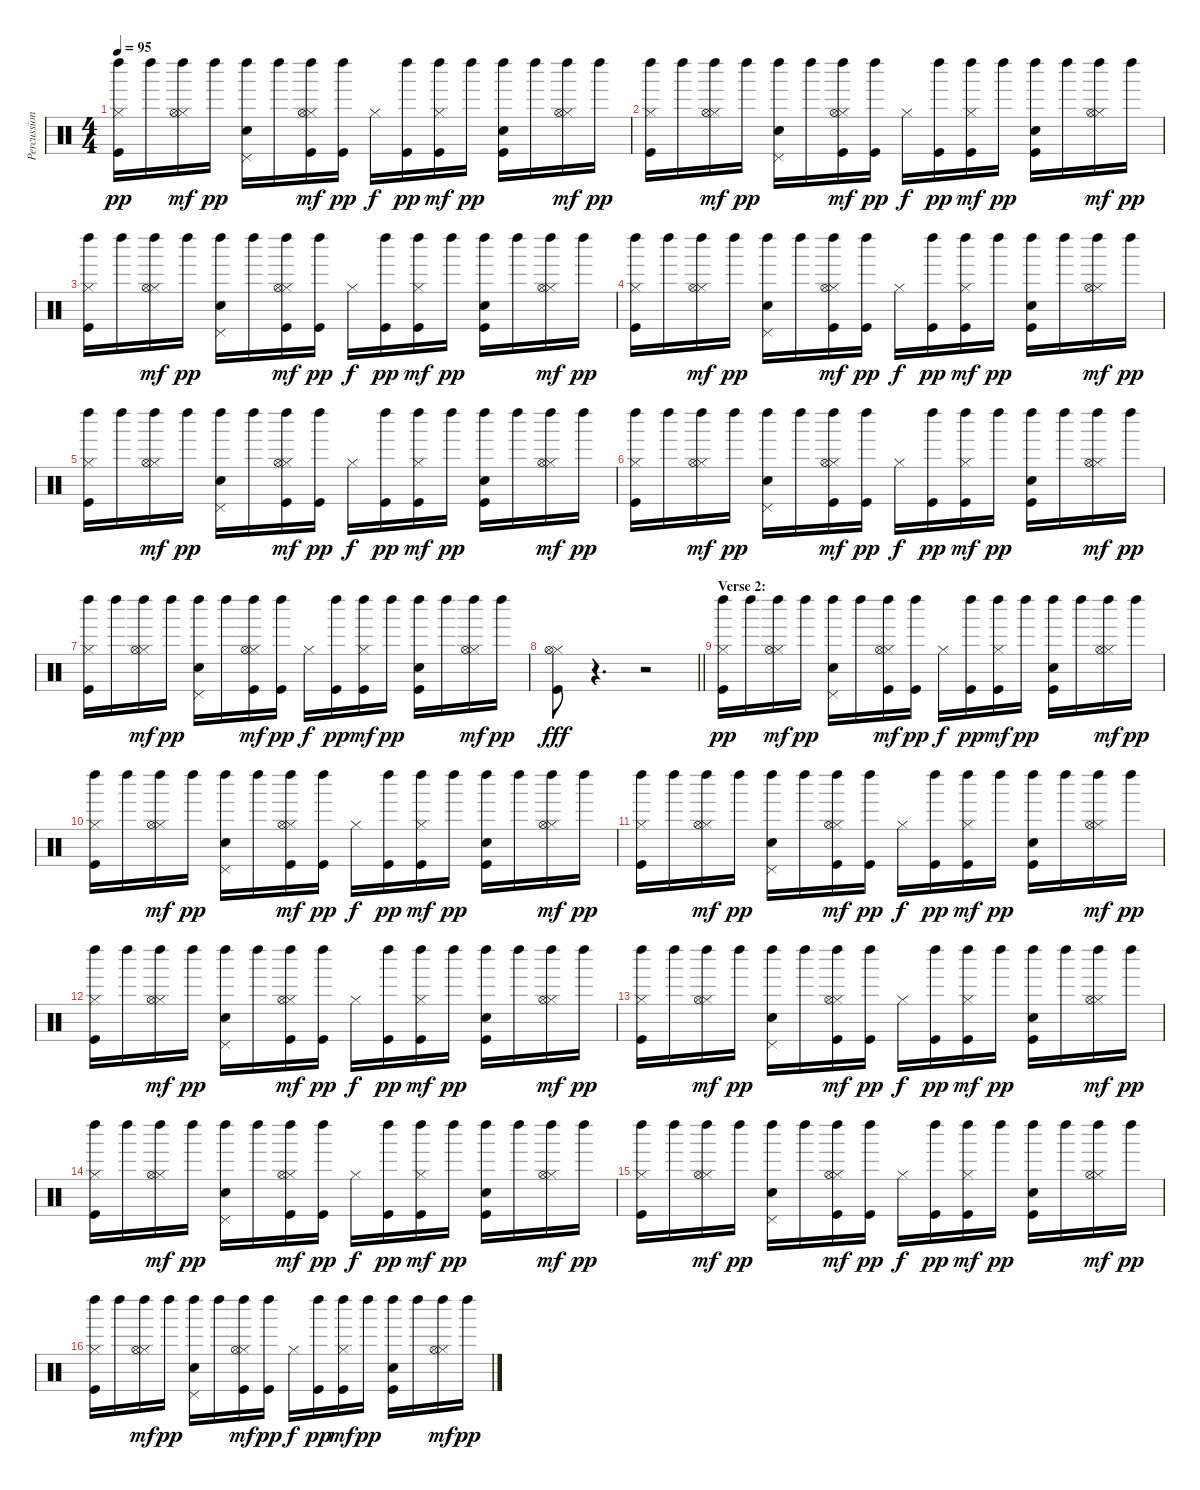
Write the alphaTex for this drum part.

\track ("Percussion" "Percussion") {instrument percussion}
\staff {score}
\articulation defaults
\ts (4 4)
\tempo 95
\clef neutral
\ks c
("Kick (hit)" "Hi-Hat (closed)" "Left Maraca (hit)").16{dy pp} "Left Maraca (hit)".16 ("Hi-Hat (closed)" "Hi-Hat (open)" "Left Maraca (hit)").16{dy mf} "Left Maraca (hit)".16{dy pp} ("Snare (hit) 2" "Pedal Hi-Hat (hit)" "Left Maraca (hit)").16 "Left Maraca (hit)".16 ("Kick (hit)" "Hi-Hat (closed)" "Hi-Hat (open)" "Left Maraca (hit)").16{dy mf} ("Left Maraca (hit)" "Kick (hit)").16{dy pp} "Hi-Hat (closed)".16{dy f} ("Left Maraca (hit)" "Kick (hit)").16{dy pp} ("Hi-Hat (closed)" "Kick (hit)" "Left Maraca (hit)").16{dy mf} "Left Maraca (hit)".16{dy pp} ("Snare (hit) 2" "Kick (hit)" "Left Maraca (hit)").16 "Left Maraca (hit)".16 ("Hi-Hat (closed)" "Hi-Hat (open)" "Left Maraca (hit)").16{dy mf} "Left Maraca (hit)".16{dy pp} |
("Kick (hit)" "Hi-Hat (closed)" "Left Maraca (hit)").16 "Left Maraca (hit)".16 ("Hi-Hat (closed)" "Hi-Hat (open)" "Left Maraca (hit)").16{dy mf} "Left Maraca (hit)".16{dy pp} ("Snare (hit) 2" "Pedal Hi-Hat (hit)" "Left Maraca (hit)").16 "Left Maraca (hit)".16 ("Kick (hit)" "Hi-Hat (closed)" "Hi-Hat (open)" "Left Maraca (hit)").16{dy mf} ("Left Maraca (hit)" "Kick (hit)").16{dy pp} "Hi-Hat (closed)".16{dy f} ("Left Maraca (hit)" "Kick (hit)").16{dy pp} ("Hi-Hat (closed)" "Kick (hit)" "Left Maraca (hit)").16{dy mf} "Left Maraca (hit)".16{dy pp} ("Snare (hit) 2" "Kick (hit)" "Left Maraca (hit)").16 "Left Maraca (hit)".16 ("Hi-Hat (closed)" "Hi-Hat (open)" "Left Maraca (hit)").16{dy mf} "Left Maraca (hit)".16{dy pp} |
("Kick (hit)" "Hi-Hat (closed)" "Left Maraca (hit)").16 "Left Maraca (hit)".16 ("Hi-Hat (closed)" "Hi-Hat (open)" "Left Maraca (hit)").16{dy mf} "Left Maraca (hit)".16{dy pp} ("Snare (hit) 2" "Pedal Hi-Hat (hit)" "Left Maraca (hit)").16 "Left Maraca (hit)".16 ("Kick (hit)" "Hi-Hat (closed)" "Hi-Hat (open)" "Left Maraca (hit)").16{dy mf} ("Left Maraca (hit)" "Kick (hit)").16{dy pp} "Hi-Hat (closed)".16{dy f} ("Left Maraca (hit)" "Kick (hit)").16{dy pp} ("Hi-Hat (closed)" "Kick (hit)" "Left Maraca (hit)").16{dy mf} "Left Maraca (hit)".16{dy pp} ("Snare (hit) 2" "Kick (hit)" "Left Maraca (hit)").16 "Left Maraca (hit)".16 ("Hi-Hat (closed)" "Hi-Hat (open)" "Left Maraca (hit)").16{dy mf} "Left Maraca (hit)".16{dy pp} |
("Kick (hit)" "Hi-Hat (closed)" "Left Maraca (hit)").16 "Left Maraca (hit)".16 ("Hi-Hat (closed)" "Hi-Hat (open)" "Left Maraca (hit)").16{dy mf} "Left Maraca (hit)".16{dy pp} ("Snare (hit) 2" "Pedal Hi-Hat (hit)" "Left Maraca (hit)").16 "Left Maraca (hit)".16 ("Kick (hit)" "Hi-Hat (closed)" "Hi-Hat (open)" "Left Maraca (hit)").16{dy mf} ("Left Maraca (hit)" "Kick (hit)").16{dy pp} "Hi-Hat (closed)".16{dy f} ("Left Maraca (hit)" "Kick (hit)").16{dy pp} ("Hi-Hat (closed)" "Kick (hit)" "Left Maraca (hit)").16{dy mf} "Left Maraca (hit)".16{dy pp} ("Snare (hit) 2" "Kick (hit)" "Left Maraca (hit)").16 "Left Maraca (hit)".16 ("Hi-Hat (closed)" "Hi-Hat (open)" "Left Maraca (hit)").16{dy mf} "Left Maraca (hit)".16{dy pp} |
("Kick (hit)" "Hi-Hat (closed)" "Left Maraca (hit)").16 "Left Maraca (hit)".16 ("Hi-Hat (closed)" "Hi-Hat (open)" "Left Maraca (hit)").16{dy mf} "Left Maraca (hit)".16{dy pp} ("Snare (hit) 2" "Pedal Hi-Hat (hit)" "Left Maraca (hit)").16 "Left Maraca (hit)".16 ("Kick (hit)" "Hi-Hat (closed)" "Hi-Hat (open)" "Left Maraca (hit)").16{dy mf} ("Left Maraca (hit)" "Kick (hit)").16{dy pp} "Hi-Hat (closed)".16{dy f} ("Left Maraca (hit)" "Kick (hit)").16{dy pp} ("Hi-Hat (closed)" "Kick (hit)" "Left Maraca (hit)").16{dy mf} "Left Maraca (hit)".16{dy pp} ("Snare (hit) 2" "Kick (hit)" "Left Maraca (hit)").16 "Left Maraca (hit)".16 ("Hi-Hat (closed)" "Hi-Hat (open)" "Left Maraca (hit)").16{dy mf} "Left Maraca (hit)".16{dy pp} |
("Kick (hit)" "Hi-Hat (closed)" "Left Maraca (hit)").16 "Left Maraca (hit)".16 ("Hi-Hat (closed)" "Hi-Hat (open)" "Left Maraca (hit)").16{dy mf} "Left Maraca (hit)".16{dy pp} ("Snare (hit) 2" "Pedal Hi-Hat (hit)" "Left Maraca (hit)").16 "Left Maraca (hit)".16 ("Kick (hit)" "Hi-Hat (closed)" "Hi-Hat (open)" "Left Maraca (hit)").16{dy mf} ("Left Maraca (hit)" "Kick (hit)").16{dy pp} "Hi-Hat (closed)".16{dy f} ("Left Maraca (hit)" "Kick (hit)").16{dy pp} ("Hi-Hat (closed)" "Kick (hit)" "Left Maraca (hit)").16{dy mf} "Left Maraca (hit)".16{dy pp} ("Snare (hit) 2" "Kick (hit)" "Left Maraca (hit)").16 "Left Maraca (hit)".16 ("Hi-Hat (closed)" "Hi-Hat (open)" "Left Maraca (hit)").16{dy mf} "Left Maraca (hit)".16{dy pp} |
("Kick (hit)" "Hi-Hat (closed)" "Left Maraca (hit)").16 "Left Maraca (hit)".16 ("Hi-Hat (closed)" "Hi-Hat (open)" "Left Maraca (hit)").16{dy mf} "Left Maraca (hit)".16{dy pp} ("Snare (hit) 2" "Pedal Hi-Hat (hit)" "Left Maraca (hit)").16 "Left Maraca (hit)".16 ("Kick (hit)" "Hi-Hat (closed)" "Hi-Hat (open)" "Left Maraca (hit)").16{dy mf} ("Left Maraca (hit)" "Kick (hit)").16{dy pp} "Hi-Hat (closed)".16{dy f} ("Left Maraca (hit)" "Kick (hit)").16{dy pp} ("Hi-Hat (closed)" "Kick (hit)" "Left Maraca (hit)").16{dy mf} "Left Maraca (hit)".16{dy pp} ("Snare (hit) 2" "Kick (hit)" "Left Maraca (hit)").16 "Left Maraca (hit)".16 ("Hi-Hat (closed)" "Hi-Hat (open)" "Left Maraca (hit)").16{dy mf} "Left Maraca (hit)".16{dy pp} |
\barLineRight lightlight
("Kick (hit)" "Hi-Hat (closed)" "Hi-Hat (open)").8{dy fff} r.4{d} r.2 |
\section ("" "Verse 2:")
("Kick (hit)" "Hi-Hat (closed)" "Left Maraca (hit)").16{dy pp} "Left Maraca (hit)".16 ("Hi-Hat (closed)" "Hi-Hat (open)" "Left Maraca (hit)").16{dy mf} "Left Maraca (hit)".16{dy pp} ("Snare (hit) 2" "Pedal Hi-Hat (hit)" "Left Maraca (hit)").16 "Left Maraca (hit)".16 ("Kick (hit)" "Hi-Hat (closed)" "Hi-Hat (open)" "Left Maraca (hit)").16{dy mf} ("Left Maraca (hit)" "Kick (hit)").16{dy pp} "Hi-Hat (closed)".16{dy f} ("Left Maraca (hit)" "Kick (hit)").16{dy pp} ("Hi-Hat (closed)" "Kick (hit)" "Left Maraca (hit)").16{dy mf} "Left Maraca (hit)".16{dy pp} ("Snare (hit) 2" "Kick (hit)" "Left Maraca (hit)").16 "Left Maraca (hit)".16 ("Hi-Hat (closed)" "Hi-Hat (open)" "Left Maraca (hit)").16{dy mf} "Left Maraca (hit)".16{dy pp} |
("Kick (hit)" "Hi-Hat (closed)" "Left Maraca (hit)").16 "Left Maraca (hit)".16 ("Hi-Hat (closed)" "Hi-Hat (open)" "Left Maraca (hit)").16{dy mf} "Left Maraca (hit)".16{dy pp} ("Snare (hit) 2" "Pedal Hi-Hat (hit)" "Left Maraca (hit)").16 "Left Maraca (hit)".16 ("Kick (hit)" "Hi-Hat (closed)" "Hi-Hat (open)" "Left Maraca (hit)").16{dy mf} ("Left Maraca (hit)" "Kick (hit)").16{dy pp} "Hi-Hat (closed)".16{dy f} ("Left Maraca (hit)" "Kick (hit)").16{dy pp} ("Hi-Hat (closed)" "Kick (hit)" "Left Maraca (hit)").16{dy mf} "Left Maraca (hit)".16{dy pp} ("Snare (hit) 2" "Kick (hit)" "Left Maraca (hit)").16 "Left Maraca (hit)".16 ("Hi-Hat (closed)" "Hi-Hat (open)" "Left Maraca (hit)").16{dy mf} "Left Maraca (hit)".16{dy pp} |
("Kick (hit)" "Hi-Hat (closed)" "Left Maraca (hit)").16 "Left Maraca (hit)".16 ("Hi-Hat (closed)" "Hi-Hat (open)" "Left Maraca (hit)").16{dy mf} "Left Maraca (hit)".16{dy pp} ("Snare (hit) 2" "Pedal Hi-Hat (hit)" "Left Maraca (hit)").16 "Left Maraca (hit)".16 ("Kick (hit)" "Hi-Hat (closed)" "Hi-Hat (open)" "Left Maraca (hit)").16{dy mf} ("Left Maraca (hit)" "Kick (hit)").16{dy pp} "Hi-Hat (closed)".16{dy f} ("Left Maraca (hit)" "Kick (hit)").16{dy pp} ("Hi-Hat (closed)" "Kick (hit)" "Left Maraca (hit)").16{dy mf} "Left Maraca (hit)".16{dy pp} ("Snare (hit) 2" "Kick (hit)" "Left Maraca (hit)").16 "Left Maraca (hit)".16 ("Hi-Hat (closed)" "Hi-Hat (open)" "Left Maraca (hit)").16{dy mf} "Left Maraca (hit)".16{dy pp} |
("Kick (hit)" "Hi-Hat (closed)" "Left Maraca (hit)").16 "Left Maraca (hit)".16 ("Hi-Hat (closed)" "Hi-Hat (open)" "Left Maraca (hit)").16{dy mf} "Left Maraca (hit)".16{dy pp} ("Snare (hit) 2" "Pedal Hi-Hat (hit)" "Left Maraca (hit)").16 "Left Maraca (hit)".16 ("Kick (hit)" "Hi-Hat (closed)" "Hi-Hat (open)" "Left Maraca (hit)").16{dy mf} ("Left Maraca (hit)" "Kick (hit)").16{dy pp} "Hi-Hat (closed)".16{dy f} ("Left Maraca (hit)" "Kick (hit)").16{dy pp} ("Hi-Hat (closed)" "Kick (hit)" "Left Maraca (hit)").16{dy mf} "Left Maraca (hit)".16{dy pp} ("Snare (hit) 2" "Kick (hit)" "Left Maraca (hit)").16 "Left Maraca (hit)".16 ("Hi-Hat (closed)" "Hi-Hat (open)" "Left Maraca (hit)").16{dy mf} "Left Maraca (hit)".16{dy pp} |
("Kick (hit)" "Hi-Hat (closed)" "Left Maraca (hit)").16 "Left Maraca (hit)".16 ("Hi-Hat (closed)" "Hi-Hat (open)" "Left Maraca (hit)").16{dy mf} "Left Maraca (hit)".16{dy pp} ("Snare (hit) 2" "Pedal Hi-Hat (hit)" "Left Maraca (hit)").16 "Left Maraca (hit)".16 ("Kick (hit)" "Hi-Hat (closed)" "Hi-Hat (open)" "Left Maraca (hit)").16{dy mf} ("Left Maraca (hit)" "Kick (hit)").16{dy pp} "Hi-Hat (closed)".16{dy f} ("Left Maraca (hit)" "Kick (hit)").16{dy pp} ("Hi-Hat (closed)" "Kick (hit)" "Left Maraca (hit)").16{dy mf} "Left Maraca (hit)".16{dy pp} ("Snare (hit) 2" "Kick (hit)" "Left Maraca (hit)").16 "Left Maraca (hit)".16 ("Hi-Hat (closed)" "Hi-Hat (open)" "Left Maraca (hit)").16{dy mf} "Left Maraca (hit)".16{dy pp} |
("Kick (hit)" "Hi-Hat (closed)" "Left Maraca (hit)").16 "Left Maraca (hit)".16 ("Hi-Hat (closed)" "Hi-Hat (open)" "Left Maraca (hit)").16{dy mf} "Left Maraca (hit)".16{dy pp} ("Snare (hit) 2" "Pedal Hi-Hat (hit)" "Left Maraca (hit)").16 "Left Maraca (hit)".16 ("Kick (hit)" "Hi-Hat (closed)" "Hi-Hat (open)" "Left Maraca (hit)").16{dy mf} ("Left Maraca (hit)" "Kick (hit)").16{dy pp} "Hi-Hat (closed)".16{dy f} ("Left Maraca (hit)" "Kick (hit)").16{dy pp} ("Hi-Hat (closed)" "Kick (hit)" "Left Maraca (hit)").16{dy mf} "Left Maraca (hit)".16{dy pp} ("Snare (hit) 2" "Kick (hit)" "Left Maraca (hit)").16 "Left Maraca (hit)".16 ("Hi-Hat (closed)" "Hi-Hat (open)" "Left Maraca (hit)").16{dy mf} "Left Maraca (hit)".16{dy pp} |
("Kick (hit)" "Hi-Hat (closed)" "Left Maraca (hit)").16 "Left Maraca (hit)".16 ("Hi-Hat (closed)" "Hi-Hat (open)" "Left Maraca (hit)").16{dy mf} "Left Maraca (hit)".16{dy pp} ("Snare (hit) 2" "Pedal Hi-Hat (hit)" "Left Maraca (hit)").16 "Left Maraca (hit)".16 ("Kick (hit)" "Hi-Hat (closed)" "Hi-Hat (open)" "Left Maraca (hit)").16{dy mf} ("Left Maraca (hit)" "Kick (hit)").16{dy pp} "Hi-Hat (closed)".16{dy f} ("Left Maraca (hit)" "Kick (hit)").16{dy pp} ("Hi-Hat (closed)" "Kick (hit)" "Left Maraca (hit)").16{dy mf} "Left Maraca (hit)".16{dy pp} ("Snare (hit) 2" "Kick (hit)" "Left Maraca (hit)").16 "Left Maraca (hit)".16 ("Hi-Hat (closed)" "Hi-Hat (open)" "Left Maraca (hit)").16{dy mf} "Left Maraca (hit)".16{dy pp} |
("Kick (hit)" "Hi-Hat (closed)" "Left Maraca (hit)").16 "Left Maraca (hit)".16 ("Hi-Hat (closed)" "Hi-Hat (open)" "Left Maraca (hit)").16{dy mf} "Left Maraca (hit)".16{dy pp} ("Snare (hit) 2" "Pedal Hi-Hat (hit)" "Left Maraca (hit)").16 "Left Maraca (hit)".16 ("Kick (hit)" "Hi-Hat (closed)" "Hi-Hat (open)" "Left Maraca (hit)").16{dy mf} ("Left Maraca (hit)" "Kick (hit)").16{dy pp} "Hi-Hat (closed)".16{dy f} ("Left Maraca (hit)" "Kick (hit)").16{dy pp} ("Hi-Hat (closed)" "Kick (hit)" "Left Maraca (hit)").16{dy mf} "Left Maraca (hit)".16{dy pp} ("Snare (hit) 2" "Kick (hit)" "Left Maraca (hit)").16 "Left Maraca (hit)".16 ("Hi-Hat (closed)" "Hi-Hat (open)" "Left Maraca (hit)").16{dy mf} "Left Maraca (hit)".16{dy pp}
